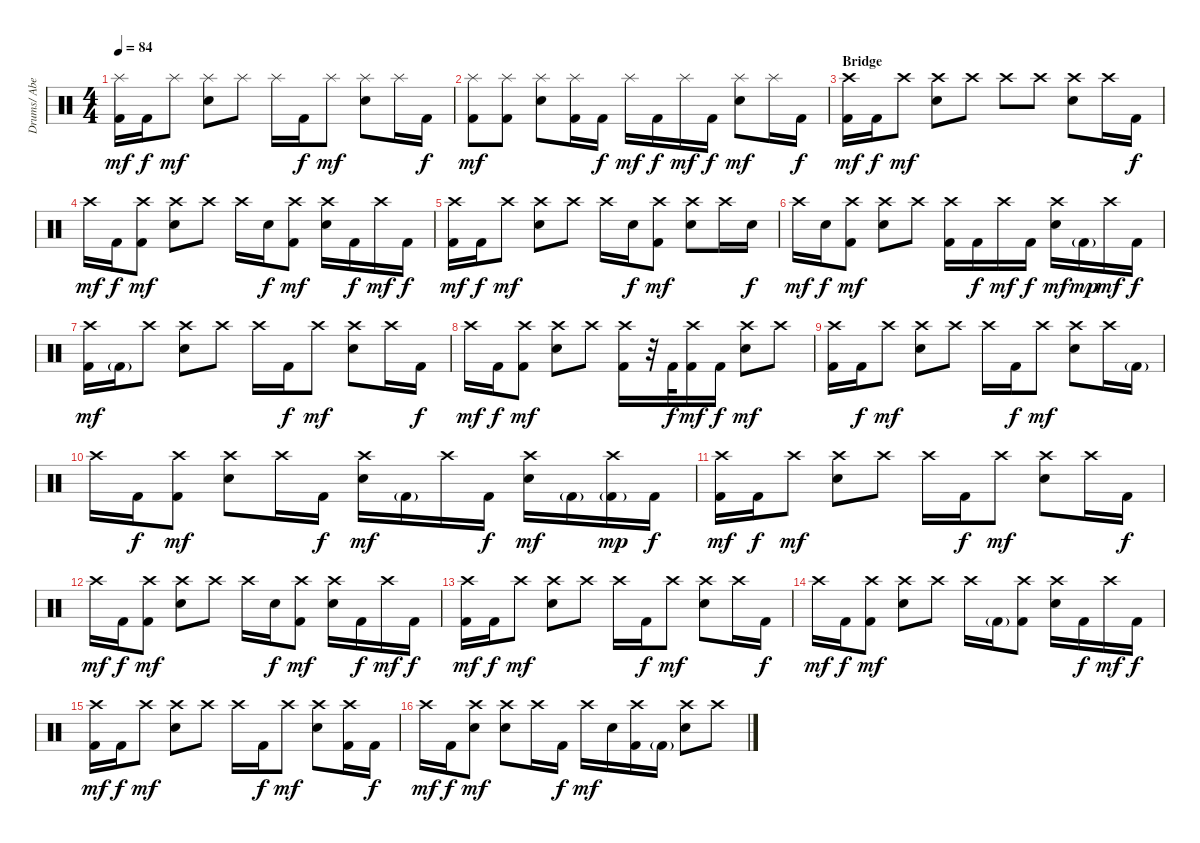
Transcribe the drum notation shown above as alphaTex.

\track ("Drums/ Abe Cunningham" "Drums/ Abe") {instrument percussion}
\staff {score}
\articulation defaults
\ts (4 4)
\tempo 84
\clef neutral
\ks c
("Splash (hit)" "Kick (hit) 2").16{dy mf} "Kick (hit) 2".16{dy f} "Splash (hit)".8{dy mf} ("Splash (hit)" "Electric Snare (hit)").8 "Splash (hit)".8 "Splash (hit)".16 "Kick (hit) 2".16{dy f} "Splash (hit)".8{dy mf} ("Splash (hit)" "Electric Snare (hit)").8 "Splash (hit)".16 "Kick (hit) 2".16{dy f} |
("Splash (hit)" "Kick (hit) 2").8{dy mf} ("Splash (hit)" "Kick (hit) 2").8 ("Splash (hit)" "Electric Snare (hit)").8 ("Splash (hit)" "Kick (hit) 2").16 "Kick (hit) 2".16{dy f} "Splash (hit)".16{dy mf} "Kick (hit) 2".16{dy f} "Splash (hit)".16{dy mf} "Kick (hit) 2".16{dy f} ("Splash (hit)" "Electric Snare (hit)").8{dy mf} "Splash (hit)".16 "Kick (hit) 2".16{dy f} |
\section ("" "Bridge")
("Crash high (hit)" "Kick (hit) 2").16{dy mf} "Kick (hit) 2".16{dy f} "Crash high (hit)".8{dy mf} ("Crash high (hit)" "Electric Snare (hit)").8 "Crash high (hit)".8 "Crash high (hit)".8 "Crash high (hit)".8 ("Crash high (hit)" "Electric Snare (hit)").8 "Crash high (hit)".16 "Kick (hit) 2".16{dy f} |
"Crash high (hit)".16{dy mf} "Kick (hit) 2".16{dy f} ("Crash high (hit)" "Kick (hit) 2").8{dy mf} ("Crash high (hit)" "Electric Snare (hit)").8 "Crash high (hit)".8 "Crash high (hit)".16 "Electric Snare (hit)".16{dy f} ("Crash high (hit)" "Kick (hit) 2").8{dy mf} ("Crash high (hit)" "Electric Snare (hit)").16 "Kick (hit) 2".16{dy f} "Crash high (hit)".16{dy mf} "Kick (hit) 2".16{dy f} |
("Crash high (hit)" "Kick (hit) 2").16{dy mf} "Kick (hit) 2".16{dy f} "Crash high (hit)".8{dy mf} ("Crash high (hit)" "Electric Snare (hit)").8 "Crash high (hit)".8 "Crash high (hit)".16 "Electric Snare (hit)".16{dy f} ("Crash high (hit)" "Kick (hit) 2").8{dy mf} ("Crash high (hit)" "Electric Snare (hit)").8 "Crash high (hit)".16 "Electric Snare (hit)".16{dy f} |
"Crash high (hit)".16{dy mf} "Electric Snare (hit)".16{dy f} ("Crash high (hit)" "Kick (hit) 2").8{dy mf} ("Crash high (hit)" "Electric Snare (hit)").8 "Crash high (hit)".8 ("Crash high (hit)" "Kick (hit) 2").16 "Kick (hit) 2".16{dy f} "Crash high (hit)".16{dy mf} "Kick (hit) 2".16{dy f} ("Crash high (hit)" "Electric Snare (hit)").16{dy mf} "Kick (hit) 2"{g}.16{dy mp} "Crash high (hit)".16{dy mf} "Kick (hit) 2".16{dy f} |
("Crash high (hit)" "Kick (hit) 2").16{dy mf} "Kick (hit) 2"{g}.16 "Crash high (hit)".8 ("Crash high (hit)" "Electric Snare (hit)").8 "Crash high (hit)".8 "Crash high (hit)".16 "Kick (hit) 2".16{dy f} "Crash high (hit)".8{dy mf} ("Crash high (hit)" "Electric Snare (hit)").8 "Crash high (hit)".16 "Kick (hit) 2".16{dy f} |
"Crash high (hit)".16{dy mf} "Kick (hit) 2".16{dy f} ("Crash high (hit)" "Kick (hit) 2").8{dy mf} ("Crash high (hit)" "Electric Snare (hit)").8 "Crash high (hit)".8 ("Crash high (hit)" "Kick (hit) 2").16 r.32 "Kick (hit) 2".32{dy f} ("Crash high (hit)" "Kick (hit) 2").16{dy mf} "Kick (hit) 2".16{dy f} ("Crash high (hit)" "Electric Snare (hit)").8{dy mf} "Crash high (hit)".8 |
("Crash high (hit)" "Kick (hit) 2").16 "Kick (hit) 2".16{dy f} "Crash high (hit)".8{dy mf} ("Crash high (hit)" "Electric Snare (hit)").8 "Crash high (hit)".8 "Crash high (hit)".16 "Kick (hit) 2".16{dy f} "Crash high (hit)".8{dy mf} ("Crash high (hit)" "Electric Snare (hit)").8 "Crash high (hit)".16 "Kick (hit) 2"{g}.16 |
"Crash high (hit)".16 "Kick (hit) 2".16{dy f} ("Crash high (hit)" "Kick (hit) 2").8{dy mf} ("Crash high (hit)" "Electric Snare (hit)").8 "Crash high (hit)".16 "Kick (hit) 2".16{dy f} ("Crash high (hit)" "Electric Snare (hit)").16{dy mf} "Kick (hit) 2"{g}.16 "Crash high (hit)".16 "Kick (hit) 2".16{dy f} ("Crash high (hit)" "Electric Snare (hit)").16{dy mf} "Kick (hit) 2"{g}.16 ("Crash high (hit)" "Kick (hit) 2"{g}).16{dy mp} "Kick (hit) 2".16{dy f} |
("Crash high (hit)" "Kick (hit) 2").16{dy mf} "Kick (hit) 2".16{dy f} "Crash high (hit)".8{dy mf} ("Crash high (hit)" "Electric Snare (hit)").8 "Crash high (hit)".8 "Crash high (hit)".16 "Kick (hit) 2".16{dy f} "Crash high (hit)".8{dy mf} ("Crash high (hit)" "Electric Snare (hit)").8 "Crash high (hit)".16 "Kick (hit) 2".16{dy f} |
"Crash high (hit)".16{dy mf} "Kick (hit) 2".16{dy f} ("Crash high (hit)" "Kick (hit) 2").8{dy mf} ("Crash high (hit)" "Electric Snare (hit)").8 "Crash high (hit)".8 "Crash high (hit)".16 "Electric Snare (hit)".16{dy f} ("Crash high (hit)" "Kick (hit) 2").8{dy mf} ("Crash high (hit)" "Electric Snare (hit)").16 "Kick (hit) 2".16{dy f} "Crash high (hit)".16{dy mf} "Kick (hit) 2".16{dy f} |
("Crash high (hit)" "Kick (hit) 2").16{dy mf} "Kick (hit) 2".16{dy f} "Crash high (hit)".8{dy mf} ("Crash high (hit)" "Electric Snare (hit)").8 "Crash high (hit)".8 "Crash high (hit)".16 "Kick (hit) 2".16{dy f} "Crash high (hit)".8{dy mf} ("Crash high (hit)" "Electric Snare (hit)").8 "Crash high (hit)".16 "Kick (hit) 2".16{dy f} |
"Crash high (hit)".16{dy mf} "Kick (hit) 2".16{dy f} ("Crash high (hit)" "Kick (hit) 2").8{dy mf} ("Crash high (hit)" "Electric Snare (hit)").8 "Crash high (hit)".8 "Crash high (hit)".16 "Kick (hit) 2"{g}.16 ("Crash high (hit)" "Kick (hit) 2").8 ("Crash high (hit)" "Electric Snare (hit)").16 "Kick (hit) 2".16{dy f} "Crash high (hit)".16{dy mf} "Kick (hit) 2".16{dy f} |
("Crash high (hit)" "Kick (hit) 2").16{dy mf} "Kick (hit) 2".16{dy f} "Crash high (hit)".8{dy mf} ("Crash high (hit)" "Electric Snare (hit)").8 "Crash high (hit)".8 "Crash high (hit)".16 "Kick (hit) 2".16{dy f} "Crash high (hit)".8{dy mf} ("Crash high (hit)" "Electric Snare (hit)").8 ("Crash high (hit)" "Kick (hit) 2").16 "Kick (hit) 2".16{dy f} |
"Crash high (hit)".16{dy mf} "Kick (hit) 2".16{dy f} ("Crash high (hit)" "Electric Snare (hit)").8{dy mf} ("Crash high (hit)" "Electric Snare (hit)").8 "Crash high (hit)".16 "Kick (hit) 2".16{dy f} "Crash high (hit)".16{dy mf} "Electric Snare (hit)".16 ("Crash high (hit)" "Kick (hit) 2").16 "Kick (hit) 2"{g}.16 ("Crash high (hit)" "Electric Snare (hit)").8 "Crash high (hit)".8
